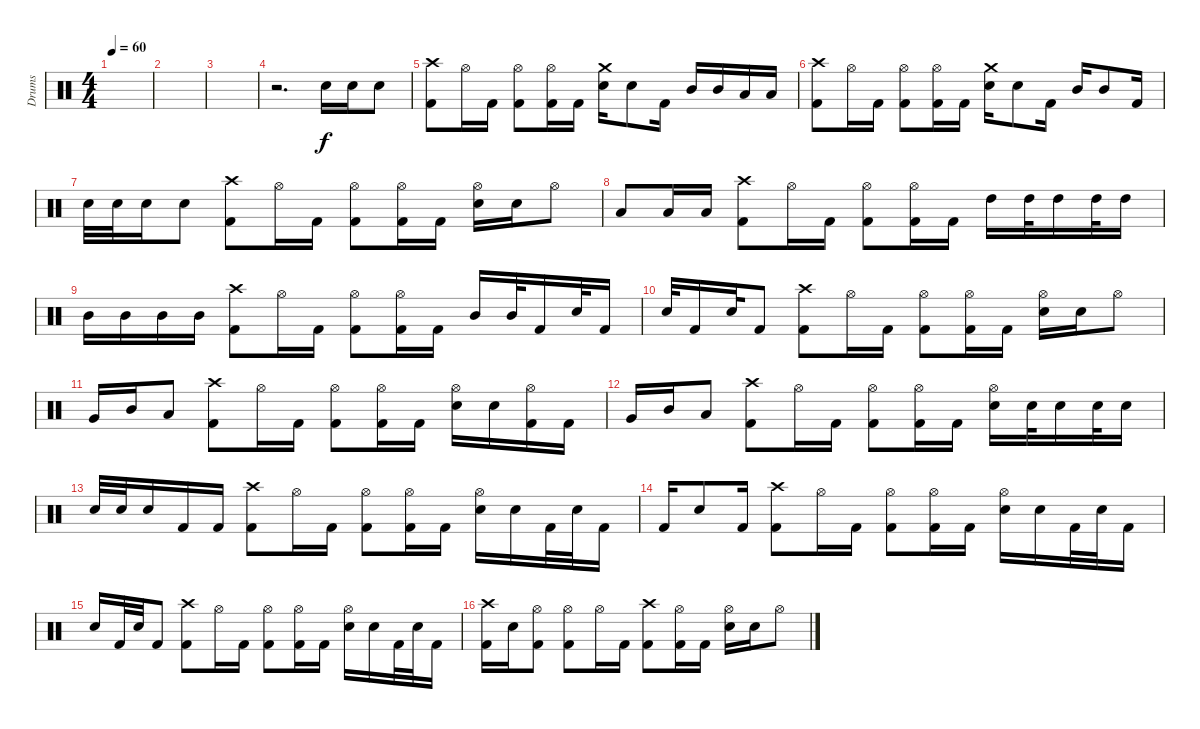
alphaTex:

\track ("Drums" "Drums") {instrument percussion}
\staff {score}
\articulation defaults
\ts (4 4)
\tempo 60
\clef neutral
\ks c
|
|
|
r.2{d} "Electric Snare (hit)".16 "Electric Snare (hit)".16 "Electric Snare (hit)".8 |
("Crash high (hit)" "Kick (hit) 2").8 "Hi-Hat (open)".16 "Kick (hit) 2".16 ("Hi-Hat (open)" "Kick (hit) 2").8 ("Hi-Hat (open)" "Kick (hit) 2").16 "Kick (hit) 2".16 ("Crash medium (hit)" "Electric Snare (hit)").16 "Electric Snare (hit)".8 "Kick (hit) 2".16 "Mid Tom (hit)".16 "Mid Tom (hit)".16 "Low Tom (hit)".16 "Low Tom (hit)".16 |
("Crash high (hit)" "Kick (hit) 2").8 "Hi-Hat (open)".16 "Kick (hit) 2".16 ("Hi-Hat (open)" "Kick (hit) 2").8 ("Hi-Hat (open)" "Kick (hit) 2").16 "Kick (hit) 2".16 ("Crash medium (hit)" "Electric Snare (hit)").16 "Electric Snare (hit)".8 "Kick (hit) 2".16 "Mid Tom (hit)".16 "Mid Tom (hit)".8 "Kick (hit) 2".16 |
"Electric Snare (hit)".32 "Electric Snare (hit)".32 "Electric Snare (hit)".16 "Electric Snare (hit)".8 ("Crash high (hit)" "Kick (hit) 2").8 "Hi-Hat (open)".16 "Kick (hit) 2".16 ("Hi-Hat (open)" "Kick (hit) 2").8 ("Hi-Hat (open)" "Kick (hit) 2").16 "Kick (hit) 2".16 ("Hi-Hat (open)" "Electric Snare (hit)").16 "Electric Snare (hit)".16 "Hi-Hat (open)".8 |
"Low Tom (hit)".8 "Low Tom (hit)".16 "Low Tom (hit)".16 ("Crash high (hit)" "Kick (hit) 2").8 "Hi-Hat (open)".16 "Kick (hit) 2".16 ("Hi-Hat (open)" "Kick (hit) 2").8 ("Hi-Hat (open)" "Kick (hit) 2").16 "Kick (hit) 2".16 "High Tom (hit)".16 "High Tom (hit)".32 "High Tom (hit)".16 "High Tom (hit)".32 "High Tom (hit)".16 |
"Mid Tom (hit)".16 "Mid Tom (hit)".16 "Mid Tom (hit)".16 "Mid Tom (hit)".16 ("Crash high (hit)" "Kick (hit) 2").8 "Hi-Hat (open)".16 "Kick (hit) 2".16 ("Hi-Hat (open)" "Kick (hit) 2").8 ("Hi-Hat (open)" "Kick (hit) 2").16 "Kick (hit) 2".16 "Mid Tom (hit)".16 "Mid Tom (hit)".32 "Kick (hit) 2".16 "Electric Snare (hit)".32 "Kick (hit) 2".16 |
"Electric Snare (hit)".32 "Kick (hit) 2".16 "Electric Snare (hit)".32 "Kick (hit) 2".8 ("Crash high (hit)" "Kick (hit) 2").8 "Hi-Hat (open)".16 "Kick (hit) 2".16 ("Hi-Hat (open)" "Kick (hit) 2").8 ("Hi-Hat (open)" "Kick (hit) 2").16 "Kick (hit) 2".16 ("Hi-Hat (open)" "Electric Snare (hit)").16 "Electric Snare (hit)".16 "Hi-Hat (open)".8 |
"Very Low Tom (hit)".16 "Mid Tom (hit)".16 "Low Tom (hit)".8 ("Crash high (hit)" "Kick (hit) 2").8 "Hi-Hat (open)".16 "Kick (hit) 2".16 ("Hi-Hat (open)" "Kick (hit) 2").8 ("Hi-Hat (open)" "Kick (hit) 2").16 "Kick (hit) 2".16 ("Hi-Hat (open)" "Electric Snare (hit)").16 "Electric Snare (hit)".16 ("Hi-Hat (open)" "Kick (hit) 2").16 "Kick (hit) 2".16 |
"Very Low Tom (hit)".16 "Mid Tom (hit)".16 "Low Tom (hit)".8 ("Crash high (hit)" "Kick (hit) 2").8 "Hi-Hat (open)".16 "Kick (hit) 2".16 ("Hi-Hat (open)" "Kick (hit) 2").8 ("Hi-Hat (open)" "Kick (hit) 2").16 "Kick (hit) 2".16 ("Hi-Hat (open)" "Electric Snare (hit)").16 "Electric Snare (hit)".32 "Electric Snare (hit)".16 "Electric Snare (hit)".32 "Electric Snare (hit)".16 |
"Electric Snare (hit)".32 "Electric Snare (hit)".32 "Electric Snare (hit)".16 "Kick (hit) 2".16 "Kick (hit) 2".16 ("Crash high (hit)" "Kick (hit) 2").8 "Hi-Hat (open)".16 "Kick (hit) 2".16 ("Hi-Hat (open)" "Kick (hit) 2").8 ("Hi-Hat (open)" "Kick (hit) 2").16 "Kick (hit) 2".16 ("Hi-Hat (open)" "Electric Snare (hit)").16 "Electric Snare (hit)".16 "Kick (hit) 2".32 "Electric Snare (hit)".32 "Kick (hit) 2".16 |
"Kick (hit) 2".16 "Electric Snare (hit)".8 "Kick (hit) 2".16 ("Crash high (hit)" "Kick (hit) 2").8 "Hi-Hat (open)".16 "Kick (hit) 2".16 ("Hi-Hat (open)" "Kick (hit) 2").8 ("Hi-Hat (open)" "Kick (hit) 2").16 "Kick (hit) 2".16 ("Hi-Hat (open)" "Electric Snare (hit)").16 "Electric Snare (hit)".16 "Kick (hit) 2".32 "Electric Snare (hit)".32 "Kick (hit) 2".16 |
"Electric Snare (hit)".16 "Kick (hit) 2".32 "Electric Snare (hit)".32 "Kick (hit) 2".8 ("Crash high (hit)" "Kick (hit) 2").8 "Hi-Hat (open)".16 "Kick (hit) 2".16 ("Hi-Hat (open)" "Kick (hit) 2").8 ("Hi-Hat (open)" "Kick (hit) 2").16 "Kick (hit) 2".16 ("Hi-Hat (open)" "Electric Snare (hit)").16 "Electric Snare (hit)".16 "Kick (hit) 2".32 "Electric Snare (hit)".32 "Kick (hit) 2".16 |
("Crash high (hit)" "Kick (hit) 2").16 "Electric Snare (hit)".16 ("Hi-Hat (open)" "Kick (hit) 2").8 ("Hi-Hat (open)" "Kick (hit) 2").8 "Hi-Hat (open)".16 "Kick (hit) 2".16 ("Crash high (hit)" "Kick (hit) 2").8 ("Hi-Hat (open)" "Kick (hit) 2").16 "Kick (hit) 2".16 ("Hi-Hat (open)" "Electric Snare (hit)").16 "Electric Snare (hit)".16 "Hi-Hat (open)".8
